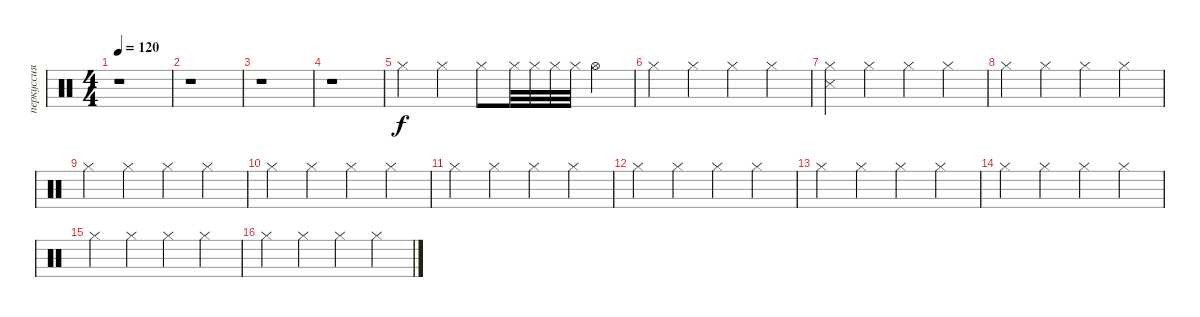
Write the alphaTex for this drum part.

\track ("перкуссия" "перкуссия") {instrument percussion}
\staff {score}
\articulation defaults
\ts (4 4)
\tempo 120
\clef neutral
\ks c
r.1{dy f} |
r.1 |
r.1 |
r.1 |
"Hi-Hat (closed)".4 "Hi-Hat (closed)".4 "Hi-Hat (closed)".8 "Hi-Hat (closed)".32 "Hi-Hat (closed)".32 "Hi-Hat (closed)".32 "Hi-Hat (closed)".32 "Hi-Hat (open)".4 |
"Hi-Hat (closed)".4 "Hi-Hat (closed)".4 "Hi-Hat (closed)".4 "Hi-Hat (closed)".4 |
("Metronome (hit)" "Hi-Hat (closed)").4 "Hi-Hat (closed)".4 "Hi-Hat (closed)".4 "Hi-Hat (closed)".4 |
"Hi-Hat (closed)".4 "Hi-Hat (closed)".4 "Hi-Hat (closed)".4 "Hi-Hat (closed)".4 |
"Hi-Hat (closed)".4 "Hi-Hat (closed)".4 "Hi-Hat (closed)".4 "Hi-Hat (closed)".4 |
"Hi-Hat (closed)".4 "Hi-Hat (closed)".4 "Hi-Hat (closed)".4 "Hi-Hat (closed)".4 |
"Hi-Hat (closed)".4 "Hi-Hat (closed)".4 "Hi-Hat (closed)".4 "Hi-Hat (closed)".4 |
"Hi-Hat (closed)".4 "Hi-Hat (closed)".4 "Hi-Hat (closed)".4 "Hi-Hat (closed)".4 |
"Hi-Hat (closed)".4 "Hi-Hat (closed)".4 "Hi-Hat (closed)".4 "Hi-Hat (closed)".4 |
"Hi-Hat (closed)".4 "Hi-Hat (closed)".4 "Hi-Hat (closed)".4 "Hi-Hat (closed)".4 |
"Hi-Hat (closed)".4 "Hi-Hat (closed)".4 "Hi-Hat (closed)".4 "Hi-Hat (closed)".4 |
"Hi-Hat (closed)".4 "Hi-Hat (closed)".4 "Hi-Hat (closed)".4 "Hi-Hat (closed)".4
